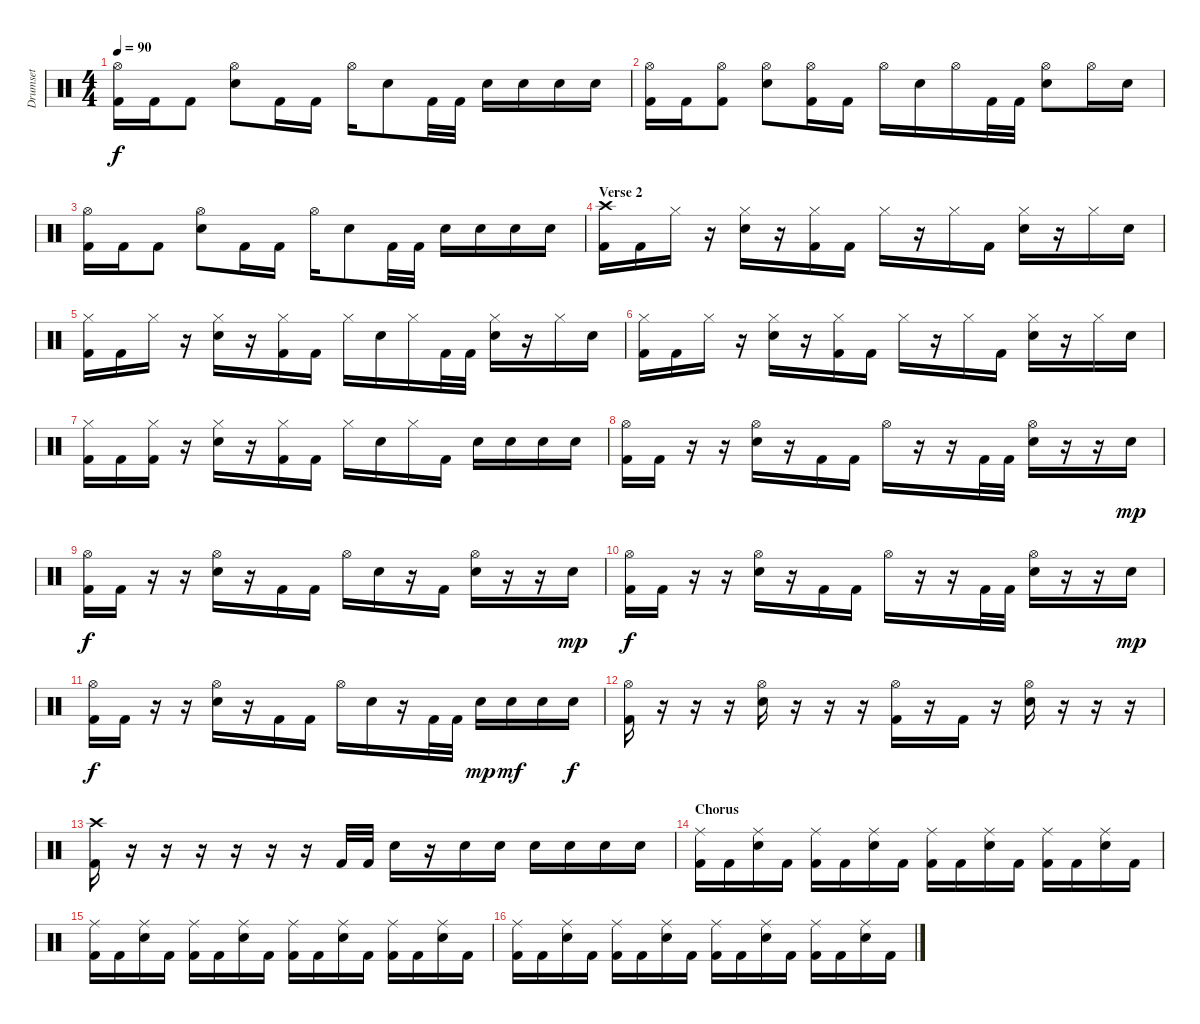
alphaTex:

\track ("Drumset" "Drumset") {instrument percussion}
\staff {score}
\articulation defaults
\ts (4 4)
\tempo 90
\clef neutral
\ks c
("Hi-Hat (open)" "Kick (hit) 2").16{dy f} "Kick (hit) 2".16 "Kick (hit) 2".8 ("Hi-Hat (open)" "Electric Snare (hit)").8 "Kick (hit) 2".16 "Kick (hit) 2".16 "Hi-Hat (open)".16 "Electric Snare (hit)".8 "Kick (hit) 2".32 "Kick (hit) 2".32 "Electric Snare (hit)".16 "Electric Snare (hit)".16 "Electric Snare (hit)".16 "Electric Snare (hit)".16 |
("Hi-Hat (open)" "Kick (hit) 2").16 "Kick (hit) 2".16 ("Hi-Hat (open)" "Kick (hit) 2").8 ("Hi-Hat (open)" "Electric Snare (hit)").8 ("Hi-Hat (open)" "Kick (hit) 2").16 "Kick (hit) 2".16 "Hi-Hat (open)".16 "Electric Snare (hit)".16 "Hi-Hat (open)".16 "Kick (hit) 2".32 "Kick (hit) 2".32 ("Hi-Hat (open)" "Electric Snare (hit)").8 "Hi-Hat (open)".16 "Electric Snare (hit)".16 |
("Hi-Hat (open)" "Kick (hit) 2").16 "Kick (hit) 2".16 "Kick (hit) 2".8 ("Hi-Hat (open)" "Electric Snare (hit)").8 "Kick (hit) 2".16 "Kick (hit) 2".16 "Hi-Hat (open)".16 "Electric Snare (hit)".8 "Kick (hit) 2".32 "Kick (hit) 2".32 "Electric Snare (hit)".16 "Electric Snare (hit)".16 "Electric Snare (hit)".16 "Electric Snare (hit)".16 |
\section ("" "Verse 2")
("Crash high (hit)" "Kick (hit) 2").16 "Kick (hit) 2".16 "Hi-Hat (closed)".16 r.16 ("Hi-Hat (closed)" "Electric Snare (hit)").16 r.16 ("Hi-Hat (closed)" "Kick (hit) 2").16 "Kick (hit) 2".16 "Hi-Hat (closed)".16 r.16 "Hi-Hat (closed)".16 "Kick (hit) 2".16 ("Hi-Hat (closed)" "Electric Snare (hit)").16 r.16 "Hi-Hat (closed)".16 "Electric Snare (hit)".16 |
("Hi-Hat (closed)" "Kick (hit) 2").16 "Kick (hit) 2".16 "Hi-Hat (closed)".16 r.16 ("Hi-Hat (closed)" "Electric Snare (hit)").16 r.16 ("Hi-Hat (closed)" "Kick (hit) 2").16 "Kick (hit) 2".16 "Hi-Hat (closed)".16 "Electric Snare (hit)".16 "Hi-Hat (closed)".16 "Kick (hit) 2".32 "Kick (hit) 2".32 ("Hi-Hat (closed)" "Electric Snare (hit)").16 r.16 "Hi-Hat (closed)".16 "Electric Snare (hit)".16 |
("Hi-Hat (closed)" "Kick (hit) 2").16 "Kick (hit) 2".16 "Hi-Hat (closed)".16 r.16 ("Hi-Hat (closed)" "Electric Snare (hit)").16 r.16 ("Hi-Hat (closed)" "Kick (hit) 2").16 "Kick (hit) 2".16 "Hi-Hat (closed)".16 r.16 "Hi-Hat (closed)".16 "Kick (hit) 2".16 ("Hi-Hat (closed)" "Electric Snare (hit)").16 r.16 "Hi-Hat (closed)".16 "Electric Snare (hit)".16 |
("Hi-Hat (closed)" "Kick (hit) 2").16 "Kick (hit) 2".16 ("Hi-Hat (closed)" "Kick (hit) 2").16 r.16 ("Hi-Hat (closed)" "Electric Snare (hit)").16 r.16 ("Hi-Hat (closed)" "Kick (hit) 2").16 "Kick (hit) 2".16 "Hi-Hat (closed)".16 "Electric Snare (hit)".16 "Hi-Hat (closed)".16 "Kick (hit) 2".16 "Electric Snare (hit)".16 "Electric Snare (hit)".16 "Electric Snare (hit)".16 "Electric Snare (hit)".16 |
("Hi-Hat (open)" "Kick (hit) 2").16 "Kick (hit) 2".16 r.16 r.16 ("Hi-Hat (open)" "Electric Snare (hit)").16 r.16 "Kick (hit) 2".16 "Kick (hit) 2".16 "Hi-Hat (open)".16 r.16 r.16 "Kick (hit) 2".32 "Kick (hit) 2".32 ("Hi-Hat (open)" "Electric Snare (hit)").16 r.16 r.16 "Electric Snare (hit)".16{dy mp} |
("Hi-Hat (open)" "Kick (hit) 2").16{dy f} "Kick (hit) 2".16 r.16 r.16 ("Hi-Hat (open)" "Electric Snare (hit)").16 r.16 "Kick (hit) 2".16 "Kick (hit) 2".16 "Hi-Hat (open)".16 "Electric Snare (hit)".16 r.16 "Kick (hit) 2".16 ("Hi-Hat (open)" "Electric Snare (hit)").16 r.16 r.16 "Electric Snare (hit)".16{dy mp} |
("Hi-Hat (open)" "Kick (hit) 2").16{dy f} "Kick (hit) 2".16 r.16 r.16 ("Hi-Hat (open)" "Electric Snare (hit)").16 r.16 "Kick (hit) 2".16 "Kick (hit) 2".16 "Hi-Hat (open)".16 r.16 r.16 "Kick (hit) 2".32 "Kick (hit) 2".32 ("Hi-Hat (open)" "Electric Snare (hit)").16 r.16 r.16 "Electric Snare (hit)".16{dy mp} |
("Hi-Hat (open)" "Kick (hit) 2").16{dy f} "Kick (hit) 2".16 r.16 r.16 ("Hi-Hat (open)" "Electric Snare (hit)").16 r.16 "Kick (hit) 2".16 "Kick (hit) 2".16 "Hi-Hat (open)".16 "Electric Snare (hit)".16 r.16 "Kick (hit) 2".32 "Kick (hit) 2".32 "Electric Snare (hit)".16{dy mp} "Electric Snare (hit)".16{dy mf} "Electric Snare (hit)".16 "Electric Snare (hit)".16{dy f} |
("Hi-Hat (open)" "Kick (hit) 2").16 r.16 r.16 r.16 ("Hi-Hat (open)" "Electric Snare (hit)").16 r.16 r.16 r.16 ("Hi-Hat (open)" "Kick (hit) 2").16 r.16 "Kick (hit) 2".16 r.16 ("Hi-Hat (open)" "Electric Snare (hit)").16 r.16 r.16 r.16 |
("Crash high (hit)" "Kick (hit) 2").16 r.16 r.16 r.16 r.16 r.16 r.16 "Kick (hit) 2".32 "Kick (hit) 2".32 "Electric Snare (hit)".16 r.16 "Electric Snare (hit)".16 "Electric Snare (hit)".16 "Electric Snare (hit)".16 "Electric Snare (hit)".16 "Electric Snare (hit)".16 "Electric Snare (hit)".16 |
\section ("" "Chorus")
("Ride (middle)" "Kick (hit) 2").16 "Kick (hit) 2".16 ("Ride (middle)" "Electric Snare (hit)").16 "Kick (hit) 2".16 ("Ride (middle)" "Kick (hit) 2").16 "Kick (hit) 2".16 ("Ride (middle)" "Electric Snare (hit)").16 "Kick (hit) 2".16 ("Ride (middle)" "Kick (hit) 2").16 "Kick (hit) 2".16 ("Ride (middle)" "Electric Snare (hit)").16 "Kick (hit) 2".16 ("Ride (middle)" "Kick (hit) 2").16 "Kick (hit) 2".16 ("Ride (middle)" "Electric Snare (hit)").16 "Kick (hit) 2".16 |
("Ride (middle)" "Kick (hit) 2").16 "Kick (hit) 2".16 ("Ride (middle)" "Electric Snare (hit)").16 "Kick (hit) 2".16 ("Ride (middle)" "Kick (hit) 2").16 "Kick (hit) 2".16 ("Ride (middle)" "Electric Snare (hit)").16 "Kick (hit) 2".16 ("Ride (middle)" "Kick (hit) 2").16 "Kick (hit) 2".16 ("Ride (middle)" "Electric Snare (hit)").16 "Kick (hit) 2".16 ("Ride (middle)" "Kick (hit) 2").16 "Kick (hit) 2".16 ("Ride (middle)" "Electric Snare (hit)").16 "Kick (hit) 2".16 |
("Ride (middle)" "Kick (hit) 2").16 "Kick (hit) 2".16 ("Ride (middle)" "Electric Snare (hit)").16 "Kick (hit) 2".16 ("Ride (middle)" "Kick (hit) 2").16 "Kick (hit) 2".16 ("Ride (middle)" "Electric Snare (hit)").16 "Kick (hit) 2".16 ("Ride (middle)" "Kick (hit) 2").16 "Kick (hit) 2".16 ("Ride (middle)" "Electric Snare (hit)").16 "Kick (hit) 2".16 ("Ride (middle)" "Kick (hit) 2").16 "Kick (hit) 2".16 ("Ride (middle)" "Electric Snare (hit)").16 "Kick (hit) 2".16
